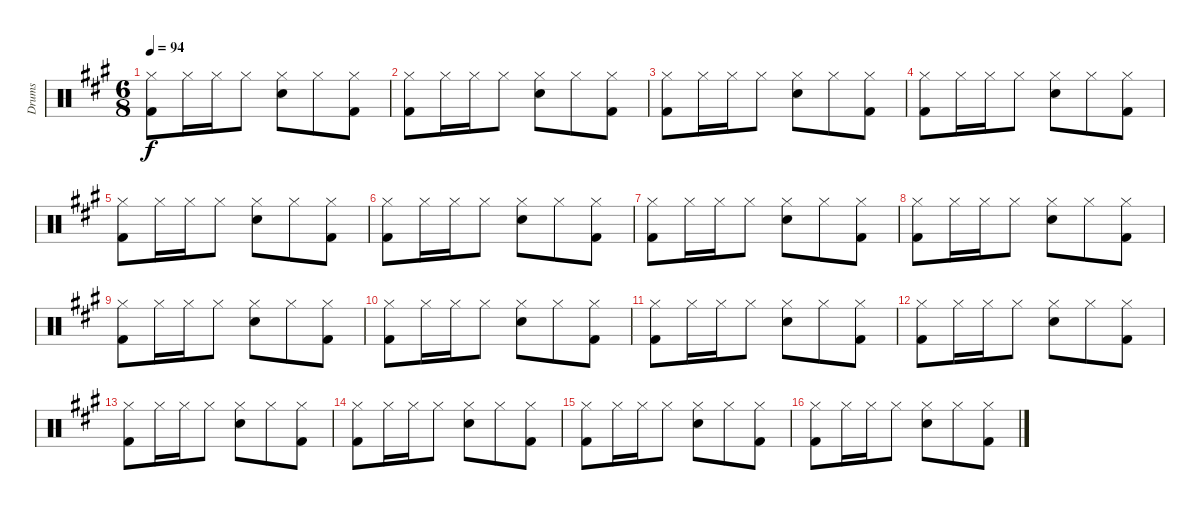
\track ("Drums" "Drums") {instrument percussion}
\staff {score}
\articulation defaults
\ts (6 8)
\tempo 94
\clef neutral
\ks a
("Hi-Hat (closed)" "Kick (hit) 2").8{dy f} "Hi-Hat (closed)".16 "Hi-Hat (closed)".16 "Hi-Hat (closed)".8 ("Hi-Hat (closed)" "Snare (hit) 2").8 "Hi-Hat (closed)".8 ("Hi-Hat (closed)" "Kick (hit) 2").8 |
("Hi-Hat (closed)" "Kick (hit) 2").8 "Hi-Hat (closed)".16 "Hi-Hat (closed)".16 "Hi-Hat (closed)".8 ("Hi-Hat (closed)" "Snare (hit) 2").8 "Hi-Hat (closed)".8 ("Hi-Hat (closed)" "Kick (hit) 2").8 |
("Hi-Hat (closed)" "Kick (hit) 2").8 "Hi-Hat (closed)".16 "Hi-Hat (closed)".16 "Hi-Hat (closed)".8 ("Hi-Hat (closed)" "Snare (hit) 2").8 "Hi-Hat (closed)".8 ("Hi-Hat (closed)" "Kick (hit) 2").8 |
("Hi-Hat (closed)" "Kick (hit) 2").8 "Hi-Hat (closed)".16 "Hi-Hat (closed)".16 "Hi-Hat (closed)".8 ("Hi-Hat (closed)" "Snare (hit) 2").8 "Hi-Hat (closed)".8 ("Hi-Hat (closed)" "Kick (hit) 2").8 |
("Hi-Hat (closed)" "Kick (hit) 2").8 "Hi-Hat (closed)".16 "Hi-Hat (closed)".16 "Hi-Hat (closed)".8 ("Hi-Hat (closed)" "Snare (hit) 2").8 "Hi-Hat (closed)".8 ("Hi-Hat (closed)" "Kick (hit) 2").8 |
("Hi-Hat (closed)" "Kick (hit) 2").8 "Hi-Hat (closed)".16 "Hi-Hat (closed)".16 "Hi-Hat (closed)".8 ("Hi-Hat (closed)" "Snare (hit) 2").8 "Hi-Hat (closed)".8 ("Hi-Hat (closed)" "Kick (hit) 2").8 |
("Hi-Hat (closed)" "Kick (hit) 2").8 "Hi-Hat (closed)".16 "Hi-Hat (closed)".16 "Hi-Hat (closed)".8 ("Hi-Hat (closed)" "Snare (hit) 2").8 "Hi-Hat (closed)".8 ("Hi-Hat (closed)" "Kick (hit) 2").8 |
("Hi-Hat (closed)" "Kick (hit) 2").8 "Hi-Hat (closed)".16 "Hi-Hat (closed)".16 "Hi-Hat (closed)".8 ("Hi-Hat (closed)" "Snare (hit) 2").8 "Hi-Hat (closed)".8 ("Hi-Hat (closed)" "Kick (hit) 2").8 |
("Hi-Hat (closed)" "Kick (hit) 2").8 "Hi-Hat (closed)".16 "Hi-Hat (closed)".16 "Hi-Hat (closed)".8 ("Hi-Hat (closed)" "Snare (hit) 2").8 "Hi-Hat (closed)".8 ("Hi-Hat (closed)" "Kick (hit) 2").8 |
("Hi-Hat (closed)" "Kick (hit) 2").8 "Hi-Hat (closed)".16 "Hi-Hat (closed)".16 "Hi-Hat (closed)".8 ("Hi-Hat (closed)" "Snare (hit) 2").8 "Hi-Hat (closed)".8 ("Hi-Hat (closed)" "Kick (hit) 2").8 |
("Hi-Hat (closed)" "Kick (hit) 2").8 "Hi-Hat (closed)".16 "Hi-Hat (closed)".16 "Hi-Hat (closed)".8 ("Hi-Hat (closed)" "Snare (hit) 2").8 "Hi-Hat (closed)".8 ("Hi-Hat (closed)" "Kick (hit) 2").8 |
("Hi-Hat (closed)" "Kick (hit) 2").8 "Hi-Hat (closed)".16 "Hi-Hat (closed)".16 "Hi-Hat (closed)".8 ("Hi-Hat (closed)" "Snare (hit) 2").8 "Hi-Hat (closed)".8 ("Hi-Hat (closed)" "Kick (hit) 2").8 |
("Hi-Hat (closed)" "Kick (hit) 2").8 "Hi-Hat (closed)".16 "Hi-Hat (closed)".16 "Hi-Hat (closed)".8 ("Hi-Hat (closed)" "Snare (hit) 2").8 "Hi-Hat (closed)".8 ("Hi-Hat (closed)" "Kick (hit) 2").8 |
("Hi-Hat (closed)" "Kick (hit) 2").8 "Hi-Hat (closed)".16 "Hi-Hat (closed)".16 "Hi-Hat (closed)".8 ("Hi-Hat (closed)" "Snare (hit) 2").8 "Hi-Hat (closed)".8 ("Hi-Hat (closed)" "Kick (hit) 2").8 |
("Hi-Hat (closed)" "Kick (hit) 2").8 "Hi-Hat (closed)".16 "Hi-Hat (closed)".16 "Hi-Hat (closed)".8 ("Hi-Hat (closed)" "Snare (hit) 2").8 "Hi-Hat (closed)".8 ("Hi-Hat (closed)" "Kick (hit) 2").8 |
("Hi-Hat (closed)" "Kick (hit) 2").8 "Hi-Hat (closed)".16 "Hi-Hat (closed)".16 "Hi-Hat (closed)".8 ("Hi-Hat (closed)" "Snare (hit) 2").8 "Hi-Hat (closed)".8 ("Hi-Hat (closed)" "Kick (hit) 2").8
